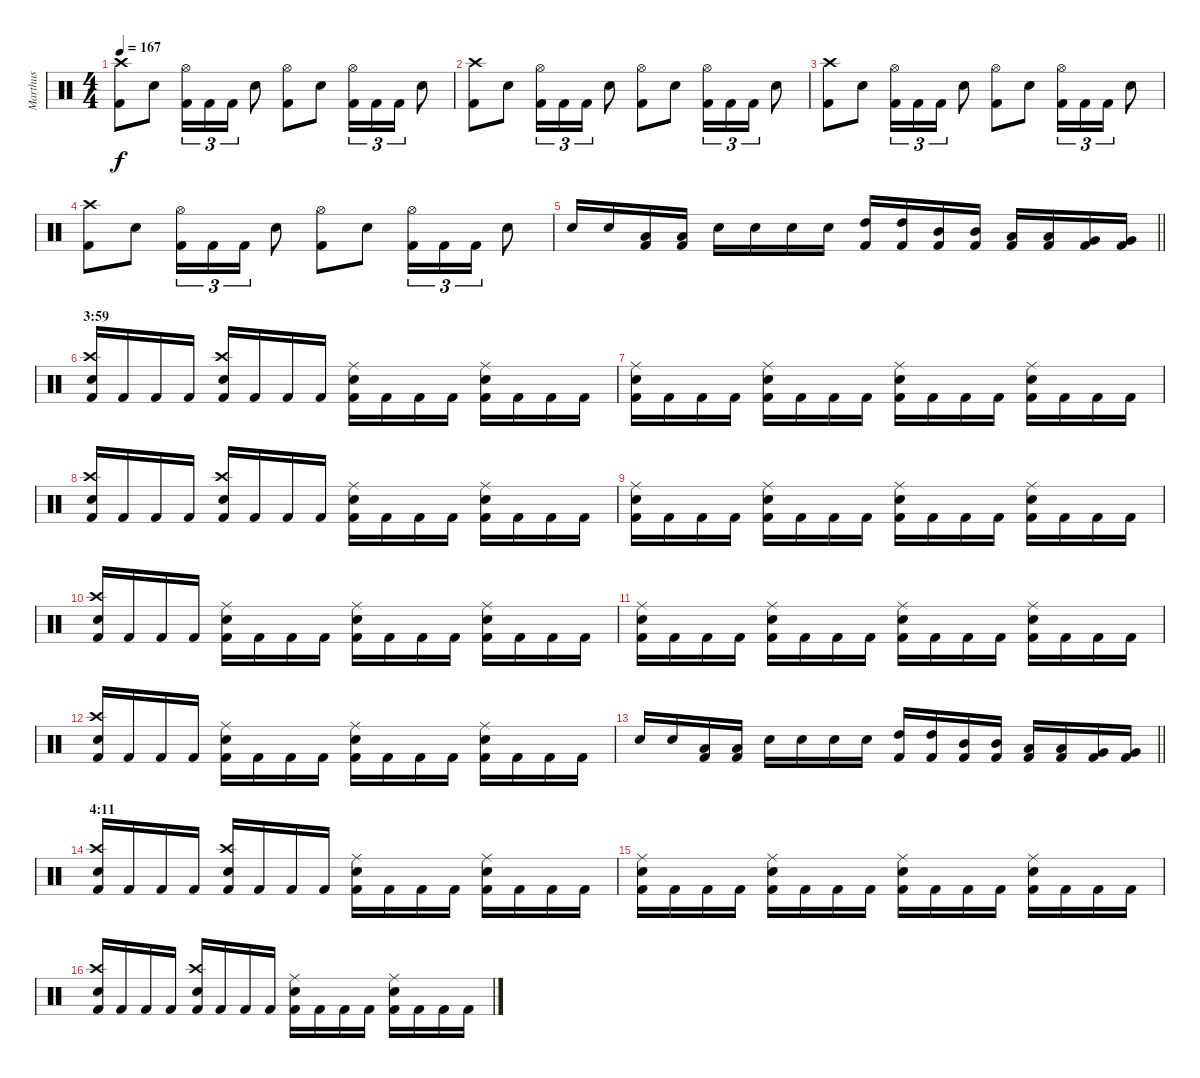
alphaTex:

\track ("Marthus" "Marthus") {instrument percussion}
\staff {score}
\articulation defaults
\ts (4 4)
\tempo 167
\clef neutral
\ks c
("Kick (hit) 2" "Crash high (hit)").8{dy f} "Snare (hit) 2".8 ("Kick (hit) 2" "Hi-Hat (open)").16{tu (3 2)} "Kick (hit) 2".16{tu (3 2)} "Kick (hit) 2".16{tu (3 2)} "Snare (hit) 2".8 ("Kick (hit) 2" "Hi-Hat (open)").8 "Snare (hit) 2".8 ("Kick (hit) 2" "Hi-Hat (open)").16{tu (3 2)} "Kick (hit) 2".16{tu (3 2)} "Kick (hit) 2".16{tu (3 2)} "Snare (hit) 2".8 |
("Kick (hit) 2" "Crash high (hit)").8 "Snare (hit) 2".8 ("Kick (hit) 2" "Hi-Hat (open)").16{tu (3 2)} "Kick (hit) 2".16{tu (3 2)} "Kick (hit) 2".16{tu (3 2)} "Snare (hit) 2".8 ("Kick (hit) 2" "Hi-Hat (open)").8 "Snare (hit) 2".8 ("Kick (hit) 2" "Hi-Hat (open)").16{tu (3 2)} "Kick (hit) 2".16{tu (3 2)} "Kick (hit) 2".16{tu (3 2)} "Snare (hit) 2".8 |
("Kick (hit) 2" "Crash high (hit)").8 "Snare (hit) 2".8 ("Kick (hit) 2" "Hi-Hat (open)").16{tu (3 2)} "Kick (hit) 2".16{tu (3 2)} "Kick (hit) 2".16{tu (3 2)} "Snare (hit) 2".8 ("Kick (hit) 2" "Hi-Hat (open)").8 "Snare (hit) 2".8 ("Kick (hit) 2" "Hi-Hat (open)").16{tu (3 2)} "Kick (hit) 2".16{tu (3 2)} "Kick (hit) 2".16{tu (3 2)} "Snare (hit) 2".8 |
("Kick (hit) 2" "Crash high (hit)").8 "Snare (hit) 2".8 ("Kick (hit) 2" "Hi-Hat (open)").16{tu (3 2)} "Kick (hit) 2".16{tu (3 2)} "Kick (hit) 2".16{tu (3 2)} "Snare (hit) 2".8 ("Kick (hit) 2" "Hi-Hat (open)").8 "Snare (hit) 2".8 ("Kick (hit) 2" "Hi-Hat (open)").16{tu (3 2)} "Kick (hit) 2".16{tu (3 2)} "Kick (hit) 2".16{tu (3 2)} "Snare (hit) 2".8 |
\barLineRight lightlight "Snare (hit) 2".16 "Snare (hit) 2".16
("Kick (hit) 2" "Low Tom (hit)").16 ("Kick (hit) 2" "Low Tom (hit)").16 "Snare (hit) 2".16 "Snare (hit) 2".16 "Snare (hit) 2".16 "Snare (hit) 2".16 ("Kick (hit) 2" "High Tom (hit)").16 ("Kick (hit) 2" "High Tom (hit)").16 ("Kick (hit) 2" "Mid Tom (hit)").16 ("Kick (hit) 2" "Mid Tom (hit)").16 ("Kick (hit) 2" "Low Tom (hit)").16 ("Kick (hit) 2" "Low Tom (hit)").16 ("Kick (hit) 2" "Very Low Tom (hit)").16 ("Kick (hit) 2" "Very Low Tom (hit)").16 |
\section ("" "3:59")
("Kick (hit) 2" "Snare (hit) 2" "Crash high (hit)").16 "Kick (hit) 2".16 "Kick (hit) 2".16 "Kick (hit) 2".16 ("Kick (hit) 2" "Snare (hit) 2" "Crash high (hit)").16 "Kick (hit) 2".16 "Kick (hit) 2".16 "Kick (hit) 2".16 ("Kick (hit) 2" "Snare (hit) 2" "Ride (middle)").16 "Kick (hit) 2".16 "Kick (hit) 2".16 "Kick (hit) 2".16 ("Kick (hit) 2" "Snare (hit) 2" "Ride (middle)").16 "Kick (hit) 2".16 "Kick (hit) 2".16 "Kick (hit) 2".16 |
("Kick (hit) 2" "Snare (hit) 2" "Ride (middle)").16 "Kick (hit) 2".16 "Kick (hit) 2".16 "Kick (hit) 2".16 ("Kick (hit) 2" "Snare (hit) 2" "Ride (middle)").16 "Kick (hit) 2".16 "Kick (hit) 2".16 "Kick (hit) 2".16 ("Kick (hit) 2" "Snare (hit) 2" "Ride (middle)").16 "Kick (hit) 2".16 "Kick (hit) 2".16 "Kick (hit) 2".16 ("Kick (hit) 2" "Snare (hit) 2" "Ride (middle)").16 "Kick (hit) 2".16 "Kick (hit) 2".16 "Kick (hit) 2".16 |
("Kick (hit) 2" "Snare (hit) 2" "Crash high (hit)").16 "Kick (hit) 2".16 "Kick (hit) 2".16 "Kick (hit) 2".16 ("Kick (hit) 2" "Snare (hit) 2" "Crash high (hit)").16 "Kick (hit) 2".16 "Kick (hit) 2".16 "Kick (hit) 2".16 ("Kick (hit) 2" "Snare (hit) 2" "Ride (middle)").16 "Kick (hit) 2".16 "Kick (hit) 2".16 "Kick (hit) 2".16 ("Kick (hit) 2" "Snare (hit) 2" "Ride (middle)").16 "Kick (hit) 2".16 "Kick (hit) 2".16 "Kick (hit) 2".16 |
("Kick (hit) 2" "Snare (hit) 2" "Ride (middle)").16 "Kick (hit) 2".16 "Kick (hit) 2".16 "Kick (hit) 2".16 ("Kick (hit) 2" "Snare (hit) 2" "Ride (middle)").16 "Kick (hit) 2".16 "Kick (hit) 2".16 "Kick (hit) 2".16 ("Kick (hit) 2" "Snare (hit) 2" "Ride (middle)").16 "Kick (hit) 2".16 "Kick (hit) 2".16 "Kick (hit) 2".16 ("Kick (hit) 2" "Snare (hit) 2" "Ride (middle)").16 "Kick (hit) 2".16 "Kick (hit) 2".16 "Kick (hit) 2".16 |
("Kick (hit) 2" "Snare (hit) 2" "Crash high (hit)").16 "Kick (hit) 2".16 "Kick (hit) 2".16 "Kick (hit) 2".16 ("Kick (hit) 2" "Snare (hit) 2" "Ride (middle)").16 "Kick (hit) 2".16 "Kick (hit) 2".16 "Kick (hit) 2".16 ("Kick (hit) 2" "Snare (hit) 2" "Ride (middle)").16 "Kick (hit) 2".16 "Kick (hit) 2".16 "Kick (hit) 2".16 ("Kick (hit) 2" "Snare (hit) 2" "Ride (middle)").16 "Kick (hit) 2".16 "Kick (hit) 2".16 "Kick (hit) 2".16 |
("Kick (hit) 2" "Snare (hit) 2" "Ride (middle)").16 "Kick (hit) 2".16 "Kick (hit) 2".16 "Kick (hit) 2".16 ("Kick (hit) 2" "Snare (hit) 2" "Ride (middle)").16 "Kick (hit) 2".16 "Kick (hit) 2".16 "Kick (hit) 2".16 ("Kick (hit) 2" "Snare (hit) 2" "Ride (middle)").16 "Kick (hit) 2".16 "Kick (hit) 2".16 "Kick (hit) 2".16 ("Kick (hit) 2" "Snare (hit) 2" "Ride (middle)").16 "Kick (hit) 2".16 "Kick (hit) 2".16 "Kick (hit) 2".16 |
("Kick (hit) 2" "Snare (hit) 2" "Crash high (hit)").16 "Kick (hit) 2".16 "Kick (hit) 2".16 "Kick (hit) 2".16 ("Kick (hit) 2" "Snare (hit) 2" "Ride (middle)").16 "Kick (hit) 2".16 "Kick (hit) 2".16 "Kick (hit) 2".16 ("Kick (hit) 2" "Snare (hit) 2" "Ride (middle)").16 "Kick (hit) 2".16 "Kick (hit) 2".16 "Kick (hit) 2".16 ("Kick (hit) 2" "Snare (hit) 2" "Ride (middle)").16 "Kick (hit) 2".16 "Kick (hit) 2".16 "Kick (hit) 2".16 |
\barLineRight lightlight "Snare (hit) 2".16 "Snare (hit) 2".16
("Kick (hit) 2" "Low Tom (hit)").16 ("Kick (hit) 2" "Low Tom (hit)").16 "Snare (hit) 2".16 "Snare (hit) 2".16 "Snare (hit) 2".16 "Snare (hit) 2".16 ("Kick (hit) 2" "High Tom (hit)").16 ("Kick (hit) 2" "High Tom (hit)").16 ("Kick (hit) 2" "Mid Tom (hit)").16 ("Kick (hit) 2" "Mid Tom (hit)").16 ("Kick (hit) 2" "Low Tom (hit)").16 ("Kick (hit) 2" "Low Tom (hit)").16 ("Kick (hit) 2" "Very Low Tom (hit)").16 ("Kick (hit) 2" "Very Low Tom (hit)").16 |
\section ("" "4:11")
("Kick (hit) 2" "Snare (hit) 2" "Crash high (hit)").16 "Kick (hit) 2".16 "Kick (hit) 2".16 "Kick (hit) 2".16 ("Kick (hit) 2" "Snare (hit) 2" "Crash high (hit)").16 "Kick (hit) 2".16 "Kick (hit) 2".16 "Kick (hit) 2".16 ("Kick (hit) 2" "Snare (hit) 2" "Ride (middle)").16 "Kick (hit) 2".16 "Kick (hit) 2".16 "Kick (hit) 2".16 ("Kick (hit) 2" "Snare (hit) 2" "Ride (middle)").16 "Kick (hit) 2".16 "Kick (hit) 2".16 "Kick (hit) 2".16 |
("Kick (hit) 2" "Snare (hit) 2" "Ride (middle)").16 "Kick (hit) 2".16 "Kick (hit) 2".16 "Kick (hit) 2".16 ("Kick (hit) 2" "Snare (hit) 2" "Ride (middle)").16 "Kick (hit) 2".16 "Kick (hit) 2".16 "Kick (hit) 2".16 ("Kick (hit) 2" "Snare (hit) 2" "Ride (middle)").16 "Kick (hit) 2".16 "Kick (hit) 2".16 "Kick (hit) 2".16 ("Kick (hit) 2" "Snare (hit) 2" "Ride (middle)").16 "Kick (hit) 2".16 "Kick (hit) 2".16 "Kick (hit) 2".16 |
("Kick (hit) 2" "Snare (hit) 2" "Crash high (hit)").16 "Kick (hit) 2".16 "Kick (hit) 2".16 "Kick (hit) 2".16 ("Kick (hit) 2" "Snare (hit) 2" "Crash high (hit)").16 "Kick (hit) 2".16 "Kick (hit) 2".16 "Kick (hit) 2".16 ("Kick (hit) 2" "Snare (hit) 2" "Ride (middle)").16 "Kick (hit) 2".16 "Kick (hit) 2".16 "Kick (hit) 2".16 ("Kick (hit) 2" "Snare (hit) 2" "Ride (middle)").16 "Kick (hit) 2".16 "Kick (hit) 2".16 "Kick (hit) 2".16
